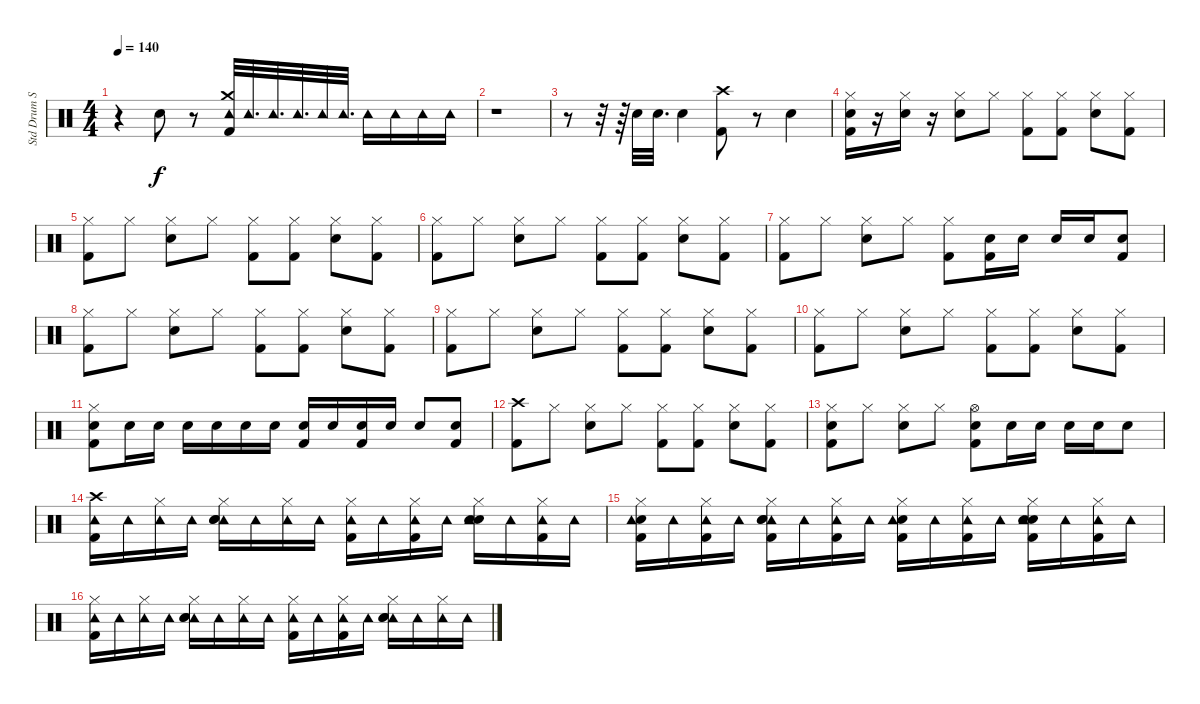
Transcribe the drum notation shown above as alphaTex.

\track ("Std Drum Set" "Std Drum S") {instrument percussion}
\staff {score}
\articulation defaults
\ts (4 4)
\tempo 140
\clef neutral
\ks c
r.4{dy f} "Snare (hit) 2".8 r.8 ("Kick (hit) 2" "Crash medium (hit)" "Tambourine (hit)").32 "Tambourine (hit)".32{d} "Tambourine (hit)".32{d} "Tambourine (hit)".32{d} "Tambourine (hit)".32 "Tambourine (hit)".32{d} "Tambourine (hit)".16 "Tambourine (hit)".16 "Tambourine (hit)".16 "Tambourine (hit)".16 |
r.1 |
r.8 r.32 r.64 "Snare (hit) 2".32 "Snare (hit) 2".32{d} "Snare (hit) 2".4 ("Crash high (hit)" "Kick (hit) 2").8 r.8 "Snare (hit) 2".4 |
("Hi-Hat (closed)" "Hand Clap (hit)" "Kick (hit) 2").16 r.16 ("Hi-Hat (closed)" "Hand Clap (hit)").16 r.16 ("Hi-Hat (closed)" "Snare (hit) 2").8 "Hi-Hat (closed)".8 ("Hi-Hat (closed)" "Kick (hit) 2").8 ("Hi-Hat (closed)" "Kick (hit) 2").8 ("Hi-Hat (closed)" "Snare (hit) 2").8 ("Kick (hit) 2" "Hi-Hat (closed)").8 |
("Hi-Hat (closed)" "Kick (hit) 2").8 "Hi-Hat (closed)".8 ("Hi-Hat (closed)" "Snare (hit) 2").8 "Hi-Hat (closed)".8 ("Hi-Hat (closed)" "Kick (hit) 2").8 ("Kick (hit) 2" "Hi-Hat (closed)").8 ("Snare (hit) 2" "Hi-Hat (closed)").8 ("Kick (hit) 2" "Hi-Hat (closed)").8 |
("Kick (hit) 2" "Hi-Hat (closed)").8 "Hi-Hat (closed)".8 ("Hi-Hat (closed)" "Snare (hit) 2").8 "Hi-Hat (closed)".8 ("Hi-Hat (closed)" "Kick (hit) 2").8 ("Hi-Hat (closed)" "Kick (hit) 2").8 ("Hi-Hat (closed)" "Snare (hit) 2").8 ("Hi-Hat (closed)" "Kick (hit) 2").8 |
("Kick (hit) 2" "Hi-Hat (closed)").8 "Hi-Hat (closed)".8 ("Snare (hit) 2" "Hi-Hat (closed)").8 "Hi-Hat (closed)".8 ("Kick (hit) 2" "Hi-Hat (closed)").8 ("Kick (hit) 2" "Snare (hit) 2").16 "Snare (hit) 2".16 "Snare (hit) 2".16 "Snare (hit) 2".16 ("Snare (hit) 2" "Kick (hit) 2").8 |
("Hi-Hat (closed)" "Kick (hit) 2").8 "Hi-Hat (closed)".8 ("Snare (hit) 2" "Hi-Hat (closed)").8 "Hi-Hat (closed)".8 ("Kick (hit) 2" "Hi-Hat (closed)").8 ("Kick (hit) 2" "Hi-Hat (closed)").8 ("Hi-Hat (closed)" "Snare (hit) 2").8 ("Kick (hit) 2" "Hi-Hat (closed)").8 |
("Hi-Hat (closed)" "Kick (hit) 2").8 "Hi-Hat (closed)".8 ("Snare (hit) 2" "Hi-Hat (closed)").8 "Hi-Hat (closed)".8 ("Kick (hit) 2" "Hi-Hat (closed)").8 ("Kick (hit) 2" "Hi-Hat (closed)").8 ("Hi-Hat (closed)" "Snare (hit) 2").8 ("Kick (hit) 2" "Hi-Hat (closed)").8 |
("Kick (hit) 2" "Hi-Hat (closed)").8 "Hi-Hat (closed)".8 ("Snare (hit) 2" "Hi-Hat (closed)").8 "Hi-Hat (closed)".8 ("Kick (hit) 2" "Hi-Hat (closed)").8 ("Kick (hit) 2" "Hi-Hat (closed)").8 ("Snare (hit) 2" "Hi-Hat (closed)").8 ("Kick (hit) 2" "Hi-Hat (closed)").8 |
("Hi-Hat (closed)" "Kick (hit) 2" "Snare (hit) 2").8 "Snare (hit) 2".16 "Snare (hit) 2".16 "Snare (hit) 2".16 "Snare (hit) 2".16 "Snare (hit) 2".16 "Snare (hit) 2".16 ("Snare (hit) 2" "Kick (hit) 2").16 "Snare (hit) 2".16 ("Snare (hit) 2" "Kick (hit) 2").16 "Snare (hit) 2".16 "Snare (hit) 2".8 ("Kick (hit) 2" "Snare (hit) 2").8 |
("Kick (hit) 2" "Crash high (hit)").8 "Hi-Hat (closed)".8 ("Snare (hit) 2" "Hi-Hat (closed)").8 "Hi-Hat (closed)".8 ("Kick (hit) 2" "Hi-Hat (closed)").8 ("Hi-Hat (closed)" "Kick (hit) 2").8 ("Snare (hit) 2" "Hi-Hat (closed)").8 ("Kick (hit) 2" "Hi-Hat (closed)").8 |
("Snare (hit) 2" "Hi-Hat (closed)" "Kick (hit) 2").8 "Hi-Hat (closed)".8 ("Hi-Hat (closed)" "Snare (hit) 2").8 "Hi-Hat (closed)".8 ("Snare (hit) 2" "Hi-Hat (open)" "Kick (hit) 2").8 "Snare (hit) 2".16 "Snare (hit) 2".16 "Snare (hit) 2".16 "Snare (hit) 2".16 "Snare (hit) 2".8 |
("Crash high (hit)" "Tambourine (hit)" "Kick (hit) 2").16 "Tambourine (hit)".16 ("Tambourine (hit)" "Hi-Hat (closed)").16 "Tambourine (hit)".16 ("Tambourine (hit)" "Hand Clap (hit)" "Hi-Hat (closed)" "Snare (hit) 2").16 "Tambourine (hit)".16 ("Hi-Hat (closed)" "Tambourine (hit)").16 "Tambourine (hit)".16 ("Hi-Hat (closed)" "Tambourine (hit)" "Kick (hit) 2").16 "Tambourine (hit)".16 ("Kick (hit) 2" "Hi-Hat (closed)" "Tambourine (hit)").16 "Tambourine (hit)".16 ("Hand Clap (hit)" "Snare (hit) 2" "Hi-Hat (closed)" "Tambourine (hit)").16 "Tambourine (hit)".16 ("Tambourine (hit)" "Kick (hit) 2" "Hi-Hat (closed)").16 "Tambourine (hit)".16 |
("Kick (hit) 2" "Snare (hit) 2" "Tambourine (hit)" "Hi-Hat (closed)").16 "Tambourine (hit)".16 ("Tambourine (hit)" "Kick (hit) 2" "Hi-Hat (closed)").16 "Tambourine (hit)".16 ("Kick (hit) 2" "Tambourine (hit)" "Snare (hit) 2" "Hi-Hat (closed)" "Hand Clap (hit)").16 "Tambourine (hit)".16 ("Tambourine (hit)" "Hi-Hat (closed)" "Kick (hit) 2").16 "Tambourine (hit)".16 ("Snare (hit) 2" "Tambourine (hit)" "Kick (hit) 2" "Hi-Hat (closed)").16 "Tambourine (hit)".16 ("Hi-Hat (closed)" "Tambourine (hit)" "Kick (hit) 2").16 "Tambourine (hit)".16 ("Kick (hit) 2" "Hand Clap (hit)" "Tambourine (hit)" "Snare (hit) 2" "Hi-Hat (closed)").16 "Tambourine (hit)".16 ("Kick (hit) 2" "Hi-Hat (closed)" "Tambourine (hit)").16 "Tambourine (hit)".16 |
("Kick (hit) 2" "Hi-Hat (closed)" "Tambourine (hit)").16 "Tambourine (hit)".16 ("Tambourine (hit)" "Hi-Hat (closed)").16 "Tambourine (hit)".16 ("Tambourine (hit)" "Hand Clap (hit)" "Snare (hit) 2" "Hi-Hat (closed)").16 "Tambourine (hit)".16 ("Hi-Hat (closed)" "Tambourine (hit)").16 "Tambourine (hit)".16 ("Hi-Hat (closed)" "Kick (hit) 2" "Tambourine (hit)").16 "Tambourine (hit)".16 ("Hi-Hat (closed)" "Tambourine (hit)" "Kick (hit) 2").16 "Tambourine (hit)".16 ("Tambourine (hit)" "Hand Clap (hit)" "Hi-Hat (closed)" "Snare (hit) 2").16 "Tambourine (hit)".16 ("Tambourine (hit)" "Hi-Hat (closed)").16 "Tambourine (hit)".16
